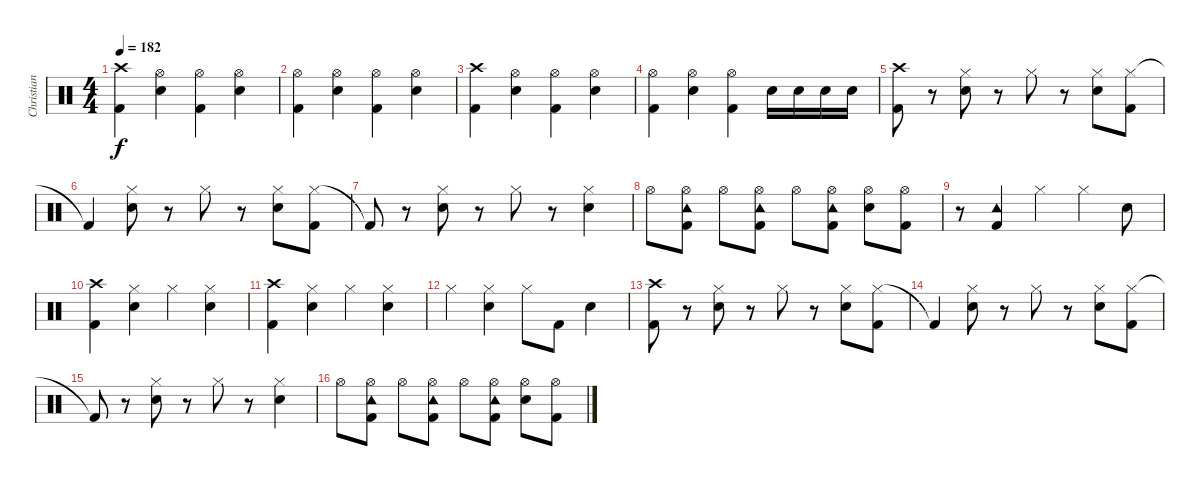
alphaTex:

\track ("Christian Meyer" "Christian ") {instrument percussion}
\staff {score}
\articulation defaults
\ts (4 4)
\tempo 182
\clef neutral
\ks c
("Crash high (hit)" "Kick (hit) 2").4{dy f} ("Hi-Hat (open)" "Electric Snare (hit)").4 ("Hi-Hat (open)" "Kick (hit) 2").4 ("Hi-Hat (open)" "Electric Snare (hit)").4 |
("Hi-Hat (open)" "Kick (hit) 2").4 ("Hi-Hat (open)" "Electric Snare (hit)").4 ("Hi-Hat (open)" "Kick (hit) 2").4 ("Hi-Hat (open)" "Electric Snare (hit)").4 |
("Crash high (hit)" "Kick (hit) 2").4 ("Hi-Hat (open)" "Electric Snare (hit)").4 ("Hi-Hat (open)" "Kick (hit) 2").4 ("Hi-Hat (open)" "Electric Snare (hit)").4 |
("Hi-Hat (open)" "Kick (hit) 2").4 ("Hi-Hat (open)" "Electric Snare (hit)").4 ("Hi-Hat (open)" "Kick (hit) 2").4 "Electric Snare (hit)".16 "Electric Snare (hit)".16 "Electric Snare (hit)".16 "Electric Snare (hit)".16 |
("Crash high (hit)" "Kick (hit) 2").8 r.8 ("Hi-Hat (closed)" "Electric Snare (hit)").8 r.8 "Hi-Hat (closed)".8 r.8 ("Hi-Hat (closed)" "Electric Snare (hit)").8 ("Hi-Hat (closed)" "Kick (hit) 2").8 |
"Kick (hit) 2"{t}.4 ("Hi-Hat (closed)" "Electric Snare (hit)").8 r.8 "Hi-Hat (closed)".8 r.8 ("Hi-Hat (closed)" "Electric Snare (hit)").8 ("Hi-Hat (closed)" "Kick (hit) 2").8 |
"Kick (hit) 2"{t}.8 r.8 ("Hi-Hat (closed)" "Electric Snare (hit)").8 r.8 "Hi-Hat (closed)".8 r.8 ("Hi-Hat (closed)" "Electric Snare (hit)").4 |
"Hi-Hat (open)".8 ("Hi-Hat (open)" "Tambourine (hit)" "Kick (hit) 2").8 "Hi-Hat (open)".8 ("Hi-Hat (open)" "Tambourine (hit)" "Kick (hit) 2").8 "Hi-Hat (open)".8 ("Hi-Hat (open)" "Tambourine (hit)" "Kick (hit) 2").8 ("Hi-Hat (open)" "Electric Snare (hit)").8 ("Hi-Hat (open)" "Kick (hit) 2").8 |
r.8 ("Tambourine (hit)" "Kick (hit) 2").4 "Hi-Hat (closed)".4 "Hi-Hat (closed)".4 "Electric Snare (hit)".8 |
("Crash high (hit)" "Kick (hit) 2").4 ("Hi-Hat (closed)" "Electric Snare (hit)").4 "Hi-Hat (closed)".4 ("Hi-Hat (closed)" "Electric Snare (hit)").4 |
("Crash high (hit)" "Kick (hit) 2").4 ("Hi-Hat (closed)" "Electric Snare (hit)").4 "Hi-Hat (closed)".4 ("Hi-Hat (closed)" "Electric Snare (hit)").4 |
"Hi-Hat (closed)".4 ("Hi-Hat (closed)" "Electric Snare (hit)").4 "Hi-Hat (closed)".8 "Kick (hit) 2".8 "Electric Snare (hit)".4 |
("Crash high (hit)" "Kick (hit) 2").8 r.8 ("Hi-Hat (closed)" "Electric Snare (hit)").8 r.8 "Hi-Hat (closed)".8 r.8 ("Hi-Hat (closed)" "Electric Snare (hit)").8 ("Hi-Hat (closed)" "Kick (hit) 2").8 |
"Kick (hit) 2"{t}.4 ("Hi-Hat (closed)" "Electric Snare (hit)").8 r.8 "Hi-Hat (closed)".8 r.8 ("Hi-Hat (closed)" "Electric Snare (hit)").8 ("Hi-Hat (closed)" "Kick (hit) 2").8 |
"Kick (hit) 2"{t}.8 r.8 ("Hi-Hat (closed)" "Electric Snare (hit)").8 r.8 "Hi-Hat (closed)".8 r.8 ("Hi-Hat (closed)" "Electric Snare (hit)").4 |
"Hi-Hat (open)".8 ("Hi-Hat (open)" "Tambourine (hit)" "Kick (hit) 2").8 "Hi-Hat (open)".8 ("Hi-Hat (open)" "Tambourine (hit)" "Kick (hit) 2").8 "Hi-Hat (open)".8 ("Hi-Hat (open)" "Tambourine (hit)" "Kick (hit) 2").8 ("Hi-Hat (open)" "Electric Snare (hit)").8 ("Hi-Hat (open)" "Kick (hit) 2").8
